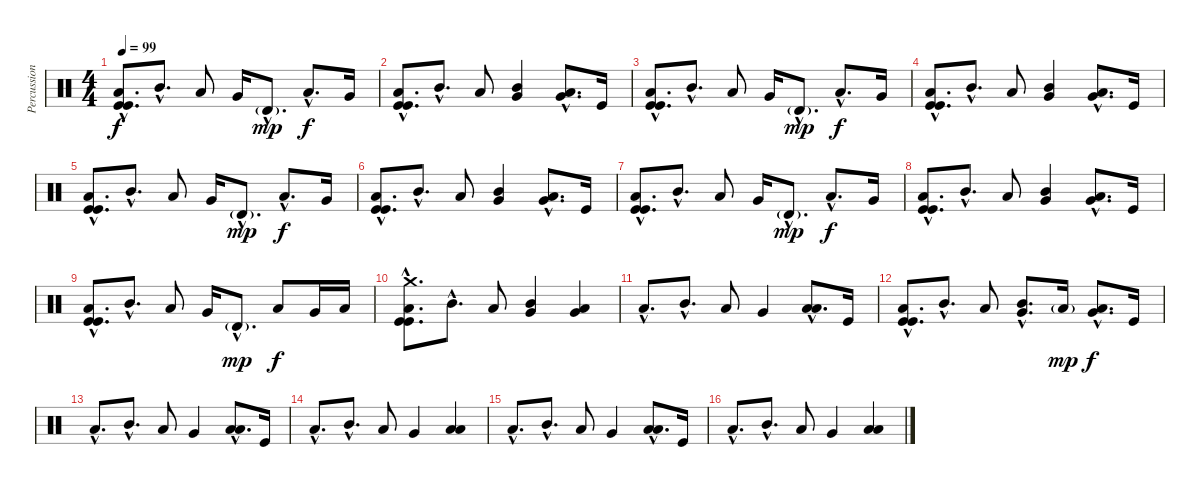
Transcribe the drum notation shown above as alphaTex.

\track ("Percussions2" "Percussion") {instrument percussion}
\staff {score}
\articulation defaults
\ts (4 4)
\tempo 99
\clef neutral
\ks c
("Low Floor Tom (hit)"{hac} "Kick (hit)"{hac} "Kick (hit)"{hac}).8{d dy f} "Mid Tom (hit)"{hac}.8{d} "Low Tom (hit)".8 "Very Low Tom (hit)".16 "Timbale high (hit)"{g hac}.8{d dy mp} "Low Floor Tom (hit)"{hac}.8{d dy f} "Very Low Tom (hit)".16 |
("Low Floor Tom (hit)"{hac} "Kick (hit)"{hac} "Kick (hit)"{hac}).8{d} "Mid Tom (hit)"{hac}.8{d} "Low Tom (hit)".8 ("Very Low Tom (hit)" "Mid Tom (hit)").4 ("Very Low Tom (hit)"{hac} "Low Floor Tom (hit)"{hac}).8{d} "Kick (hit)".16 |
("Low Floor Tom (hit)"{hac} "Kick (hit)"{hac} "Kick (hit)"{hac}).8{d} "Mid Tom (hit)"{hac}.8{d} "Low Tom (hit)".8 "Very Low Tom (hit)".16 "Timbale high (hit)"{g hac}.8{d dy mp} "Low Floor Tom (hit)"{hac}.8{d dy f} "Very Low Tom (hit)".16 |
("Low Floor Tom (hit)"{hac} "Kick (hit)"{hac} "Kick (hit)"{hac}).8{d} "Mid Tom (hit)"{hac}.8{d} "Low Tom (hit)".8 ("Very Low Tom (hit)" "Mid Tom (hit)").4 ("Very Low Tom (hit)"{hac} "Low Floor Tom (hit)"{hac}).8{d} "Kick (hit)".16 |
("Low Floor Tom (hit)"{hac} "Kick (hit)"{hac} "Kick (hit)"{hac}).8{d} "Mid Tom (hit)"{hac}.8{d} "Low Tom (hit)".8 "Very Low Tom (hit)".16 "Timbale high (hit)"{g hac}.8{d dy mp} "Low Floor Tom (hit)"{hac}.8{d dy f} "Very Low Tom (hit)".16 |
("Low Floor Tom (hit)"{hac} "Kick (hit)"{hac} "Kick (hit)"{hac}).8{d} "Mid Tom (hit)"{hac}.8{d} "Low Tom (hit)".8 ("Very Low Tom (hit)" "Mid Tom (hit)").4 ("Very Low Tom (hit)"{hac} "Low Floor Tom (hit)"{hac}).8{d} "Kick (hit)".16 |
("Low Floor Tom (hit)"{hac} "Kick (hit)"{hac} "Kick (hit)"{hac}).8{d} "Mid Tom (hit)"{hac}.8{d} "Low Tom (hit)".8 "Very Low Tom (hit)".16 "Timbale high (hit)"{g hac}.8{d dy mp} "Low Floor Tom (hit)"{hac}.8{d dy f} "Very Low Tom (hit)".16 |
("Low Floor Tom (hit)"{hac} "Kick (hit)"{hac} "Kick (hit)"{hac}).8{d} "Mid Tom (hit)"{hac}.8{d} "Low Tom (hit)".8 ("Very Low Tom (hit)" "Mid Tom (hit)").4 ("Very Low Tom (hit)"{hac} "Low Floor Tom (hit)"{hac}).8{d} "Kick (hit)".16 |
("Low Floor Tom (hit)"{hac} "Kick (hit)"{hac} "Kick (hit)"{hac}).8{d} "Mid Tom (hit)"{hac}.8{d} "Low Tom (hit)".8 "Very Low Tom (hit)".16 "Timbale high (hit)"{g hac}.8{d dy mp} "Low Floor Tom (hit)".8{dy f} "Very Low Tom (hit)".16 "Low Floor Tom (hit)".16 |
("Low Floor Tom (hit)"{hac} "Crash medium (hit)"{hac} "Kick (hit)"{hac} "Kick (hit)"{hac}).8{d} "Mid Tom (hit)"{hac}.8{d} "Low Tom (hit)".8 ("Very Low Tom (hit)" "Mid Tom (hit)").4 ("Low Floor Tom (hit)" "Very Low Tom (hit)").4 |
"Low Floor Tom (hit)"{hac}.8{d} "Mid Tom (hit)"{hac}.8{d} "Low Tom (hit)".8 "Very Low Tom (hit)".4 ("Low Floor Tom (hit)"{hac} "Low Floor Tom (hit)"{hac}).8{d} "Kick (hit)".16 |
("Low Floor Tom (hit)"{hac} "Kick (hit)"{hac} "Kick (hit)"{hac}).8{d} "Mid Tom (hit)"{hac}.8{d} "Low Tom (hit)".8 ("Very Low Tom (hit)"{hac} "Mid Tom (hit)"{hac}).8{d} "Low Floor Tom (hit)"{g}.16{dy mp} ("Very Low Tom (hit)"{hac} "Low Floor Tom (hit)"{hac}).8{d dy f} "Kick (hit)".16 |
"Low Floor Tom (hit)"{hac}.8{d} "Mid Tom (hit)"{hac}.8{d} "Low Tom (hit)".8 "Very Low Tom (hit)".4 ("Low Floor Tom (hit)"{hac} "Low Floor Tom (hit)"{hac}).8{d} "Kick (hit)".16 |
"Low Floor Tom (hit)"{hac}.8{d} "Mid Tom (hit)"{hac}.8{d} "Low Tom (hit)".8 "Very Low Tom (hit)".4 ("Low Floor Tom (hit)" "Low Floor Tom (hit)").4 |
"Low Floor Tom (hit)"{hac}.8{d} "Mid Tom (hit)"{hac}.8{d} "Low Tom (hit)".8 "Very Low Tom (hit)".4 ("Low Floor Tom (hit)"{hac} "Low Floor Tom (hit)"{hac}).8{d} "Kick (hit)".16 |
"Low Floor Tom (hit)"{hac}.8{d} "Mid Tom (hit)"{hac}.8{d} "Low Tom (hit)".8 "Very Low Tom (hit)".4 ("Low Floor Tom (hit)" "Low Floor Tom (hit)").4
